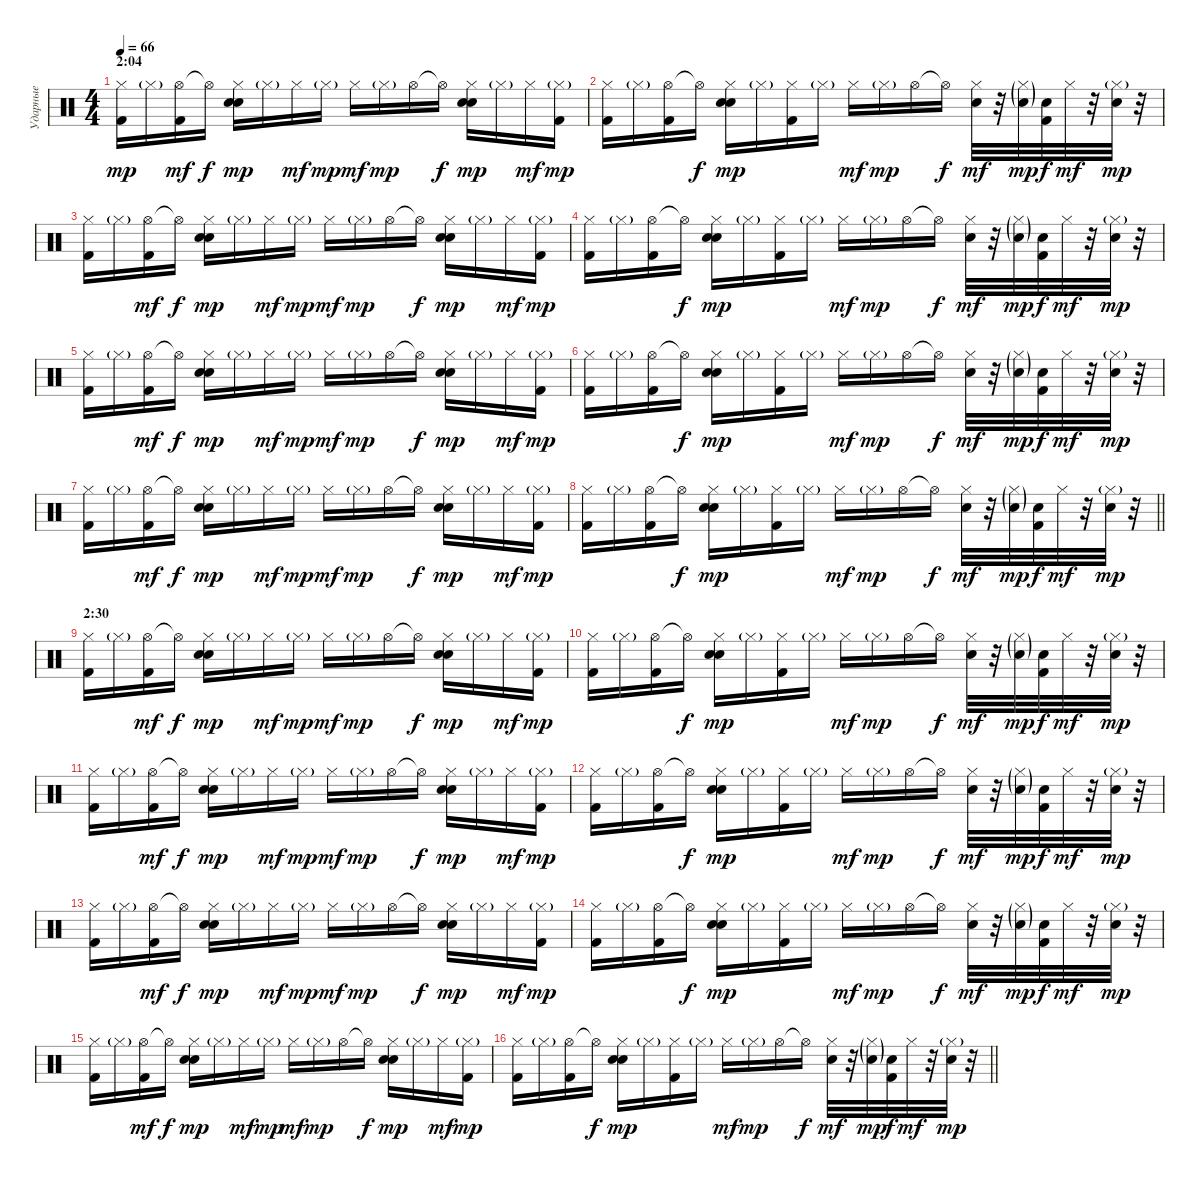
\track ("Ударные" "Ударные") {instrument percussion}
\staff {score}
\articulation defaults
\ts (4 4)
\section ("" "2:04")
\tempo 66
\clef neutral
\ks c
("Hi-Hat (closed)" "Kick (hit) 2").16{dy mp} "Hi-Hat (closed)"{g}.16 ("Hi-Hat (open)" "Kick (hit) 2").16{dy mf} "Hi-Hat (open)"{t}.16{dy f} ("Hi-Hat (closed)" "Hand Clap (hit)" "Electric Snare (hit)").16{dy mp} "Hi-Hat (closed)"{g}.16 "Hi-Hat (closed)".16{dy mf} "Hi-Hat (closed)"{g}.16{dy mp} "Hi-Hat (closed)".16{dy mf} "Hi-Hat (closed)"{g}.16{dy mp} "Hi-Hat (open)".16{balance 0} "Hi-Hat (open)"{t}.16{dy f} ("Hi-Hat (closed)" "Hand Clap (hit)" "Electric Snare (hit)").16{dy mp balance 8} "Hi-Hat (closed)"{g}.16 "Hi-Hat (closed)".16{dy mf} ("Hi-Hat (closed)"{g} "Kick (hit) 2").16{dy mp} |
("Hi-Hat (closed)" "Kick (hit) 2").16 "Hi-Hat (closed)"{g}.16 ("Hi-Hat (open)" "Kick (hit) 2").16 "Hi-Hat (open)"{t}.16{dy f} ("Hi-Hat (closed)" "Hand Clap (hit)" "Electric Snare (hit)").16{dy mp} "Hi-Hat (closed)"{g}.16 ("Hi-Hat (closed)" "Kick (hit) 2").16 "Hi-Hat (closed)"{g}.16 "Hi-Hat (closed)".16{dy mf} "Hi-Hat (closed)"{g}.16{dy mp} "Hi-Hat (open)".16{balance 0} "Hi-Hat (open)"{t}.16{dy f balance 8} ("Hi-Hat (closed)" "Hand Clap (hit)").32{dy mf balance 8} r.32 ("Hand Clap (hit)"{g} "Hi-Hat (closed)"{g}).32{dy mp} ("Hand Clap (hit)" "Kick (hit) 2").32{dy f} "Hi-Hat (closed)".32{dy mf} r.32 ("Hand Clap (hit)" "Hi-Hat (closed)"{g}).32{dy mp} r.32 |
("Hi-Hat (closed)" "Kick (hit) 2").16 "Hi-Hat (closed)"{g}.16 ("Hi-Hat (open)" "Kick (hit) 2").16{dy mf} "Hi-Hat (open)"{t}.16{dy f} ("Hi-Hat (closed)" "Hand Clap (hit)" "Electric Snare (hit)").16{dy mp} "Hi-Hat (closed)"{g}.16 "Hi-Hat (closed)".16{dy mf} "Hi-Hat (closed)"{g}.16{dy mp} "Hi-Hat (closed)".16{dy mf} "Hi-Hat (closed)"{g}.16{dy mp} "Hi-Hat (open)".16{balance 0} "Hi-Hat (open)"{t}.16{dy f} ("Hi-Hat (closed)" "Hand Clap (hit)" "Electric Snare (hit)").16{dy mp balance 8} "Hi-Hat (closed)"{g}.16 "Hi-Hat (closed)".16{dy mf} ("Hi-Hat (closed)"{g} "Kick (hit) 2").16{dy mp} |
("Hi-Hat (closed)" "Kick (hit) 2").16 "Hi-Hat (closed)"{g}.16 ("Hi-Hat (open)" "Kick (hit) 2").16 "Hi-Hat (open)"{t}.16{dy f} ("Hi-Hat (closed)" "Hand Clap (hit)" "Electric Snare (hit)").16{dy mp} "Hi-Hat (closed)"{g}.16 ("Hi-Hat (closed)" "Kick (hit) 2").16 "Hi-Hat (closed)"{g}.16 "Hi-Hat (closed)".16{dy mf} "Hi-Hat (closed)"{g}.16{dy mp} "Hi-Hat (open)".16{balance 0} "Hi-Hat (open)"{t}.16{dy f balance 8} ("Hi-Hat (closed)" "Hand Clap (hit)").32{dy mf balance 8} r.32 ("Hand Clap (hit)"{g} "Hi-Hat (closed)"{g}).32{dy mp} ("Hand Clap (hit)" "Kick (hit) 2").32{dy f} "Hi-Hat (closed)".32{dy mf} r.32 ("Hand Clap (hit)" "Hi-Hat (closed)"{g}).32{dy mp} r.32 |
("Hi-Hat (closed)" "Kick (hit) 2").16 "Hi-Hat (closed)"{g}.16 ("Hi-Hat (open)" "Kick (hit) 2").16{dy mf} "Hi-Hat (open)"{t}.16{dy f} ("Hi-Hat (closed)" "Hand Clap (hit)" "Electric Snare (hit)").16{dy mp} "Hi-Hat (closed)"{g}.16 "Hi-Hat (closed)".16{dy mf} "Hi-Hat (closed)"{g}.16{dy mp} "Hi-Hat (closed)".16{dy mf} "Hi-Hat (closed)"{g}.16{dy mp} "Hi-Hat (open)".16{balance 0} "Hi-Hat (open)"{t}.16{dy f} ("Hi-Hat (closed)" "Hand Clap (hit)" "Electric Snare (hit)").16{dy mp balance 8} "Hi-Hat (closed)"{g}.16 "Hi-Hat (closed)".16{dy mf} ("Hi-Hat (closed)"{g} "Kick (hit) 2").16{dy mp} |
("Hi-Hat (closed)" "Kick (hit) 2").16 "Hi-Hat (closed)"{g}.16 ("Hi-Hat (open)" "Kick (hit) 2").16 "Hi-Hat (open)"{t}.16{dy f} ("Hi-Hat (closed)" "Hand Clap (hit)" "Electric Snare (hit)").16{dy mp} "Hi-Hat (closed)"{g}.16 ("Hi-Hat (closed)" "Kick (hit) 2").16 "Hi-Hat (closed)"{g}.16 "Hi-Hat (closed)".16{dy mf} "Hi-Hat (closed)"{g}.16{dy mp} "Hi-Hat (open)".16{balance 0} "Hi-Hat (open)"{t}.16{dy f balance 8} ("Hi-Hat (closed)" "Hand Clap (hit)").32{dy mf balance 8} r.32 ("Hand Clap (hit)"{g} "Hi-Hat (closed)"{g}).32{dy mp} ("Hand Clap (hit)" "Kick (hit) 2").32{dy f} "Hi-Hat (closed)".32{dy mf} r.32 ("Hand Clap (hit)" "Hi-Hat (closed)"{g}).32{dy mp} r.32 |
("Hi-Hat (closed)" "Kick (hit) 2").16 "Hi-Hat (closed)"{g}.16 ("Hi-Hat (open)" "Kick (hit) 2").16{dy mf} "Hi-Hat (open)"{t}.16{dy f} ("Hi-Hat (closed)" "Hand Clap (hit)" "Electric Snare (hit)").16{dy mp} "Hi-Hat (closed)"{g}.16 "Hi-Hat (closed)".16{dy mf} "Hi-Hat (closed)"{g}.16{dy mp} "Hi-Hat (closed)".16{dy mf} "Hi-Hat (closed)"{g}.16{dy mp} "Hi-Hat (open)".16{balance 0} "Hi-Hat (open)"{t}.16{dy f} ("Hi-Hat (closed)" "Hand Clap (hit)" "Electric Snare (hit)").16{dy mp balance 8} "Hi-Hat (closed)"{g}.16 "Hi-Hat (closed)".16{dy mf} ("Hi-Hat (closed)"{g} "Kick (hit) 2").16{dy mp} |
\barLineRight lightlight
("Hi-Hat (closed)" "Kick (hit) 2").16 "Hi-Hat (closed)"{g}.16 ("Hi-Hat (open)" "Kick (hit) 2").16 "Hi-Hat (open)"{t}.16{dy f} ("Hi-Hat (closed)" "Hand Clap (hit)" "Electric Snare (hit)").16{dy mp} "Hi-Hat (closed)"{g}.16 ("Hi-Hat (closed)" "Kick (hit) 2").16 "Hi-Hat (closed)"{g}.16 "Hi-Hat (closed)".16{dy mf} "Hi-Hat (closed)"{g}.16{dy mp} "Hi-Hat (open)".16{balance 0} "Hi-Hat (open)"{t}.16{dy f balance 8} ("Hi-Hat (closed)" "Hand Clap (hit)").32{dy mf balance 8} r.32 ("Hand Clap (hit)"{g} "Hi-Hat (closed)"{g}).32{dy mp} ("Hand Clap (hit)" "Kick (hit) 2").32{dy f} "Hi-Hat (closed)".32{dy mf} r.32 ("Hand Clap (hit)" "Hi-Hat (closed)"{g}).32{dy mp} r.32 |
\section ("" "2:30")
("Hi-Hat (closed)" "Kick (hit) 2").16 "Hi-Hat (closed)"{g}.16 ("Hi-Hat (open)" "Kick (hit) 2").16{dy mf} "Hi-Hat (open)"{t}.16{dy f} ("Hi-Hat (closed)" "Hand Clap (hit)" "Electric Snare (hit)").16{dy mp} "Hi-Hat (closed)"{g}.16 "Hi-Hat (closed)".16{dy mf} "Hi-Hat (closed)"{g}.16{dy mp} "Hi-Hat (closed)".16{dy mf} "Hi-Hat (closed)"{g}.16{dy mp} "Hi-Hat (open)".16{balance 0} "Hi-Hat (open)"{t}.16{dy f} ("Hi-Hat (closed)" "Hand Clap (hit)" "Electric Snare (hit)").16{dy mp balance 8} "Hi-Hat (closed)"{g}.16 "Hi-Hat (closed)".16{dy mf} ("Hi-Hat (closed)"{g} "Kick (hit) 2").16{dy mp} |
("Hi-Hat (closed)" "Kick (hit) 2").16 "Hi-Hat (closed)"{g}.16 ("Hi-Hat (open)" "Kick (hit) 2").16 "Hi-Hat (open)"{t}.16{dy f} ("Hi-Hat (closed)" "Hand Clap (hit)" "Electric Snare (hit)").16{dy mp} "Hi-Hat (closed)"{g}.16 ("Hi-Hat (closed)" "Kick (hit) 2").16 "Hi-Hat (closed)"{g}.16 "Hi-Hat (closed)".16{dy mf} "Hi-Hat (closed)"{g}.16{dy mp} "Hi-Hat (open)".16{balance 0} "Hi-Hat (open)"{t}.16{dy f balance 8} ("Hi-Hat (closed)" "Hand Clap (hit)").32{dy mf balance 8} r.32 ("Hand Clap (hit)"{g} "Hi-Hat (closed)"{g}).32{dy mp} ("Hand Clap (hit)" "Kick (hit) 2").32{dy f} "Hi-Hat (closed)".32{dy mf} r.32 ("Hand Clap (hit)" "Hi-Hat (closed)"{g}).32{dy mp} r.32 |
("Hi-Hat (closed)" "Kick (hit) 2").16 "Hi-Hat (closed)"{g}.16 ("Hi-Hat (open)" "Kick (hit) 2").16{dy mf} "Hi-Hat (open)"{t}.16{dy f} ("Hi-Hat (closed)" "Hand Clap (hit)" "Electric Snare (hit)").16{dy mp} "Hi-Hat (closed)"{g}.16 "Hi-Hat (closed)".16{dy mf} "Hi-Hat (closed)"{g}.16{dy mp} "Hi-Hat (closed)".16{dy mf} "Hi-Hat (closed)"{g}.16{dy mp} "Hi-Hat (open)".16{balance 0} "Hi-Hat (open)"{t}.16{dy f} ("Hi-Hat (closed)" "Hand Clap (hit)" "Electric Snare (hit)").16{dy mp balance 8} "Hi-Hat (closed)"{g}.16 "Hi-Hat (closed)".16{dy mf} ("Hi-Hat (closed)"{g} "Kick (hit) 2").16{dy mp} |
("Hi-Hat (closed)" "Kick (hit) 2").16 "Hi-Hat (closed)"{g}.16 ("Hi-Hat (open)" "Kick (hit) 2").16 "Hi-Hat (open)"{t}.16{dy f} ("Hi-Hat (closed)" "Hand Clap (hit)" "Electric Snare (hit)").16{dy mp} "Hi-Hat (closed)"{g}.16 ("Hi-Hat (closed)" "Kick (hit) 2").16 "Hi-Hat (closed)"{g}.16 "Hi-Hat (closed)".16{dy mf} "Hi-Hat (closed)"{g}.16{dy mp} "Hi-Hat (open)".16{balance 0} "Hi-Hat (open)"{t}.16{dy f balance 8} ("Hi-Hat (closed)" "Hand Clap (hit)").32{dy mf balance 8} r.32 ("Hand Clap (hit)"{g} "Hi-Hat (closed)"{g}).32{dy mp} ("Hand Clap (hit)" "Kick (hit) 2").32{dy f} "Hi-Hat (closed)".32{dy mf} r.32 ("Hand Clap (hit)" "Hi-Hat (closed)"{g}).32{dy mp} r.32 |
("Hi-Hat (closed)" "Kick (hit) 2").16 "Hi-Hat (closed)"{g}.16 ("Hi-Hat (open)" "Kick (hit) 2").16{dy mf} "Hi-Hat (open)"{t}.16{dy f} ("Hi-Hat (closed)" "Hand Clap (hit)" "Electric Snare (hit)").16{dy mp} "Hi-Hat (closed)"{g}.16 "Hi-Hat (closed)".16{dy mf} "Hi-Hat (closed)"{g}.16{dy mp} "Hi-Hat (closed)".16{dy mf} "Hi-Hat (closed)"{g}.16{dy mp} "Hi-Hat (open)".16{balance 0} "Hi-Hat (open)"{t}.16{dy f} ("Hi-Hat (closed)" "Hand Clap (hit)" "Electric Snare (hit)").16{dy mp balance 8} "Hi-Hat (closed)"{g}.16 "Hi-Hat (closed)".16{dy mf} ("Hi-Hat (closed)"{g} "Kick (hit) 2").16{dy mp} |
("Hi-Hat (closed)" "Kick (hit) 2").16 "Hi-Hat (closed)"{g}.16 ("Hi-Hat (open)" "Kick (hit) 2").16 "Hi-Hat (open)"{t}.16{dy f} ("Hi-Hat (closed)" "Hand Clap (hit)" "Electric Snare (hit)").16{dy mp} "Hi-Hat (closed)"{g}.16 ("Hi-Hat (closed)" "Kick (hit) 2").16 "Hi-Hat (closed)"{g}.16 "Hi-Hat (closed)".16{dy mf} "Hi-Hat (closed)"{g}.16{dy mp} "Hi-Hat (open)".16{balance 0} "Hi-Hat (open)"{t}.16{dy f balance 8} ("Hi-Hat (closed)" "Hand Clap (hit)").32{dy mf balance 8} r.32 ("Hand Clap (hit)"{g} "Hi-Hat (closed)"{g}).32{dy mp} ("Hand Clap (hit)" "Kick (hit) 2").32{dy f} "Hi-Hat (closed)".32{dy mf} r.32 ("Hand Clap (hit)" "Hi-Hat (closed)"{g}).32{dy mp} r.32 |
("Hi-Hat (closed)" "Kick (hit) 2").16 "Hi-Hat (closed)"{g}.16 ("Hi-Hat (open)" "Kick (hit) 2").16{dy mf} "Hi-Hat (open)"{t}.16{dy f} ("Hi-Hat (closed)" "Hand Clap (hit)" "Electric Snare (hit)").16{dy mp} "Hi-Hat (closed)"{g}.16 "Hi-Hat (closed)".16{dy mf} "Hi-Hat (closed)"{g}.16{dy mp} "Hi-Hat (closed)".16{dy mf} "Hi-Hat (closed)"{g}.16{dy mp} "Hi-Hat (open)".16{balance 0} "Hi-Hat (open)"{t}.16{dy f} ("Hi-Hat (closed)" "Hand Clap (hit)" "Electric Snare (hit)").16{dy mp balance 8} "Hi-Hat (closed)"{g}.16 "Hi-Hat (closed)".16{dy mf} ("Hi-Hat (closed)"{g} "Kick (hit) 2").16{dy mp} |
\barLineRight lightlight
("Hi-Hat (closed)" "Kick (hit) 2").16 "Hi-Hat (closed)"{g}.16 ("Hi-Hat (open)" "Kick (hit) 2").16 "Hi-Hat (open)"{t}.16{dy f} ("Hi-Hat (closed)" "Hand Clap (hit)" "Electric Snare (hit)").16{dy mp} "Hi-Hat (closed)"{g}.16 ("Hi-Hat (closed)" "Kick (hit) 2").16 "Hi-Hat (closed)"{g}.16 "Hi-Hat (closed)".16{dy mf} "Hi-Hat (closed)"{g}.16{dy mp} "Hi-Hat (open)".16{balance 0} "Hi-Hat (open)"{t}.16{dy f balance 8} ("Hi-Hat (closed)" "Hand Clap (hit)").32{dy mf balance 8} r.32 ("Hand Clap (hit)"{g} "Hi-Hat (closed)"{g}).32{dy mp} ("Hand Clap (hit)" "Kick (hit) 2").32{dy f} "Hi-Hat (closed)".32{dy mf} r.32 ("Hand Clap (hit)" "Hi-Hat (closed)"{g}).32{dy mp} r.32
